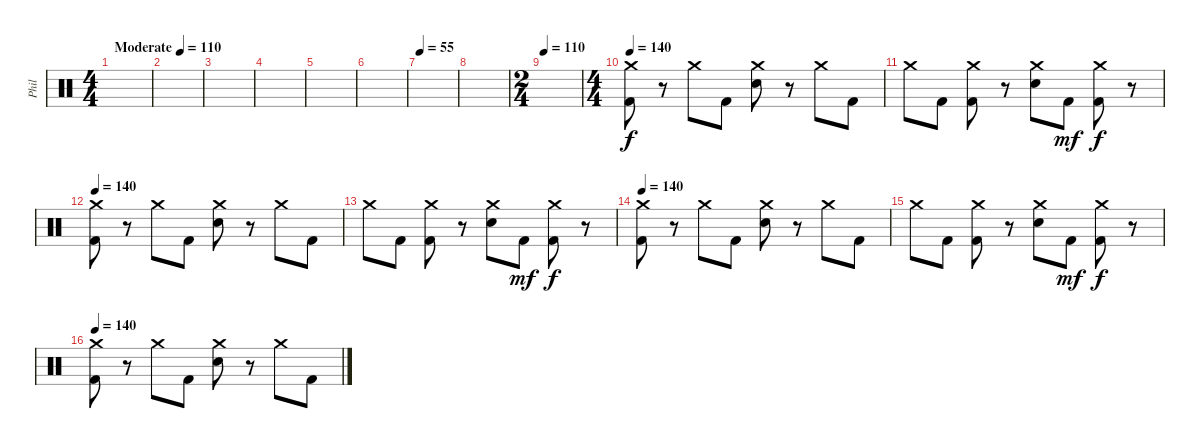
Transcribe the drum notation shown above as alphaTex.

\track ("Phil" "Phil") {instrument percussion}
\staff {score}
\articulation defaults
\ts (4 4)
\tempo (110 "Moderate")
\clef neutral
\ks c
|
|
|
|
|
|
\tempo 55
|
|
\ts (2 4)
\tempo 110
|
\ts (4 4)
\tempo 140
("Crash medium (hit)" "Kick (hit) 2").8 r.8 "Crash medium (hit)".8 "Kick (hit) 2".8 ("Crash medium (hit)" "Snare (hit) 2").8 r.8 "Crash medium (hit)".8 "Kick (hit) 2".8 |
"Crash medium (hit)".8 "Kick (hit) 2".8 ("Crash medium (hit)" "Kick (hit) 2").8 r.8 ("Crash medium (hit)" "Snare (hit) 2").8 "Kick (hit) 2".8{dy mf} ("Crash medium (hit)" "Kick (hit) 2").8{dy f} r.8 |
\tempo 140
("Crash medium (hit)" "Kick (hit) 2").8 r.8 "Crash medium (hit)".8 "Kick (hit) 2".8 ("Crash medium (hit)" "Snare (hit) 2").8 r.8 "Crash medium (hit)".8 "Kick (hit) 2".8 |
"Crash medium (hit)".8 "Kick (hit) 2".8 ("Crash medium (hit)" "Kick (hit) 2").8 r.8 ("Crash medium (hit)" "Snare (hit) 2").8 "Kick (hit) 2".8{dy mf} ("Crash medium (hit)" "Kick (hit) 2").8{dy f} r.8 |
\tempo 140
("Crash medium (hit)" "Kick (hit) 2").8 r.8 "Crash medium (hit)".8 "Kick (hit) 2".8 ("Crash medium (hit)" "Snare (hit) 2").8 r.8 "Crash medium (hit)".8 "Kick (hit) 2".8 |
"Crash medium (hit)".8 "Kick (hit) 2".8 ("Crash medium (hit)" "Kick (hit) 2").8 r.8 ("Crash medium (hit)" "Snare (hit) 2").8 "Kick (hit) 2".8{dy mf} ("Crash medium (hit)" "Kick (hit) 2").8{dy f} r.8 |
\tempo 140
("Crash medium (hit)" "Kick (hit) 2").8 r.8 "Crash medium (hit)".8 "Kick (hit) 2".8 ("Crash medium (hit)" "Snare (hit) 2").8 r.8 "Crash medium (hit)".8 "Kick (hit) 2".8
